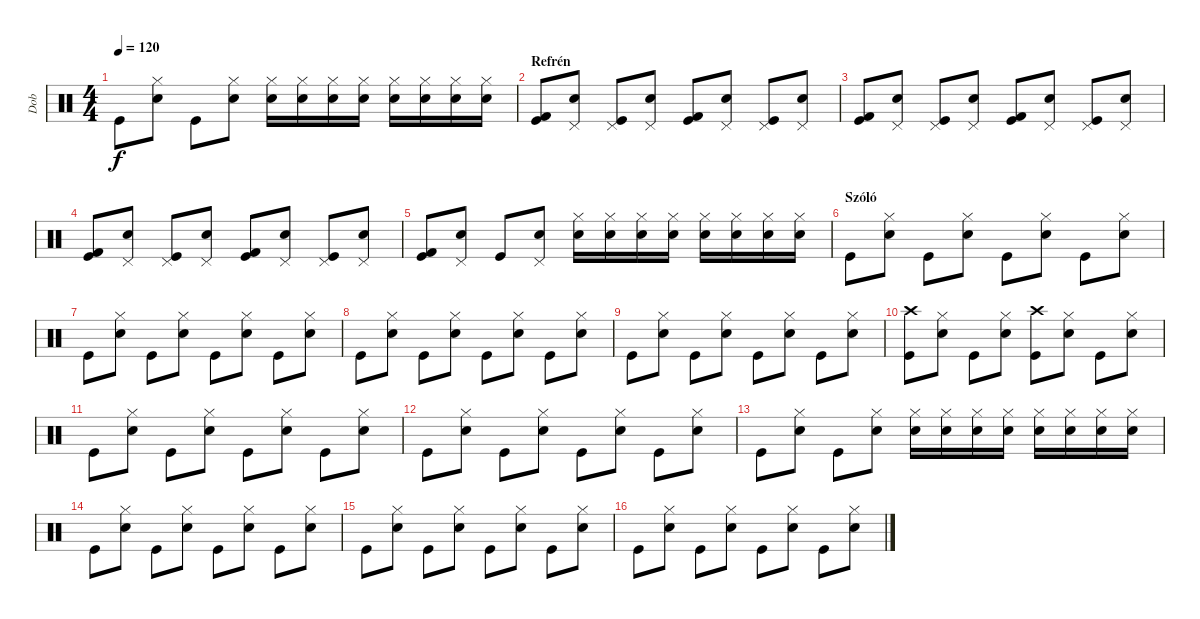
\track ("Dob" "Dob") {instrument percussion}
\staff {score}
\articulation defaults
\ts (4 4)
\tempo 120
\clef neutral
\ks c "Kick (hit)".8{dy f}
("Hi-Hat (closed)" "Electric Snare (hit)").8 "Kick (hit)".8 ("Hi-Hat (closed)" "Electric Snare (hit)").8 ("Hi-Hat (closed)" "Electric Snare (hit)").16 ("Hi-Hat (closed)" "Electric Snare (hit)").16 ("Hi-Hat (closed)" "Electric Snare (hit)").16 ("Hi-Hat (closed)" "Electric Snare (hit)").16 ("Hi-Hat (closed)" "Electric Snare (hit)").16 ("Hi-Hat (closed)" "Electric Snare (hit)").16 ("Hi-Hat (closed)" "Electric Snare (hit)").16 ("Hi-Hat (closed)" "Electric Snare (hit)").16 |
\section ("" "Refrén")
("Kick (hit)" "Kick (hit) 2").8 ("Pedal Hi-Hat (hit)" "Electric Snare (hit)").8 ("Pedal Hi-Hat (hit)" "Kick (hit)").8 ("Pedal Hi-Hat (hit)" "Electric Snare (hit)").8 ("Kick (hit)" "Kick (hit) 2").8 ("Pedal Hi-Hat (hit)" "Electric Snare (hit)").8 ("Pedal Hi-Hat (hit)" "Kick (hit)").8 ("Pedal Hi-Hat (hit)" "Electric Snare (hit)").8 |
("Kick (hit)" "Kick (hit) 2").8 ("Pedal Hi-Hat (hit)" "Electric Snare (hit)").8 ("Pedal Hi-Hat (hit)" "Kick (hit)").8 ("Pedal Hi-Hat (hit)" "Electric Snare (hit)").8 ("Kick (hit)" "Kick (hit) 2").8 ("Pedal Hi-Hat (hit)" "Electric Snare (hit)").8 ("Pedal Hi-Hat (hit)" "Kick (hit)").8 ("Pedal Hi-Hat (hit)" "Electric Snare (hit)").8 |
("Kick (hit)" "Kick (hit) 2").8 ("Pedal Hi-Hat (hit)" "Electric Snare (hit)").8 ("Pedal Hi-Hat (hit)" "Kick (hit)").8 ("Pedal Hi-Hat (hit)" "Electric Snare (hit)").8 ("Kick (hit)" "Kick (hit) 2").8 ("Pedal Hi-Hat (hit)" "Electric Snare (hit)").8 ("Pedal Hi-Hat (hit)" "Kick (hit)").8 ("Pedal Hi-Hat (hit)" "Electric Snare (hit)").8 |
("Kick (hit)" "Kick (hit) 2").8 ("Pedal Hi-Hat (hit)" "Electric Snare (hit)").8 "Kick (hit)".8 ("Pedal Hi-Hat (hit)" "Electric Snare (hit)").8 ("Hi-Hat (closed)" "Electric Snare (hit)").16 ("Hi-Hat (closed)" "Electric Snare (hit)").16 ("Hi-Hat (closed)" "Electric Snare (hit)").16 ("Hi-Hat (closed)" "Electric Snare (hit)").16 ("Hi-Hat (closed)" "Electric Snare (hit)").16 ("Hi-Hat (closed)" "Electric Snare (hit)").16 ("Hi-Hat (closed)" "Electric Snare (hit)").16 ("Hi-Hat (closed)" "Electric Snare (hit)").16 |
\section ("" "Szóló")
"Kick (hit)".8 ("Hi-Hat (closed)" "Electric Snare (hit)").8 "Kick (hit)".8 ("Hi-Hat (closed)" "Electric Snare (hit)").8 "Kick (hit)".8 ("Hi-Hat (closed)" "Electric Snare (hit)").8 "Kick (hit)".8 ("Hi-Hat (closed)" "Electric Snare (hit)").8 |
"Kick (hit)".8 ("Hi-Hat (closed)" "Electric Snare (hit)").8 "Kick (hit)".8 ("Hi-Hat (closed)" "Electric Snare (hit)").8 "Kick (hit)".8 ("Hi-Hat (closed)" "Electric Snare (hit)").8 "Kick (hit)".8 ("Hi-Hat (closed)" "Electric Snare (hit)").8 |
"Kick (hit)".8 ("Hi-Hat (closed)" "Electric Snare (hit)").8 "Kick (hit)".8 ("Hi-Hat (closed)" "Electric Snare (hit)").8 "Kick (hit)".8 ("Hi-Hat (closed)" "Electric Snare (hit)").8 "Kick (hit)".8 ("Hi-Hat (closed)" "Electric Snare (hit)").8 |
"Kick (hit)".8 ("Hi-Hat (closed)" "Electric Snare (hit)").8 "Kick (hit)".8 ("Hi-Hat (closed)" "Electric Snare (hit)").8 "Kick (hit)".8 ("Hi-Hat (closed)" "Electric Snare (hit)").8 "Kick (hit)".8 ("Hi-Hat (closed)" "Electric Snare (hit)").8 |
("Kick (hit)" "Crash high (hit)").8 ("Hi-Hat (closed)" "Electric Snare (hit)").8 "Kick (hit)".8 ("Hi-Hat (closed)" "Electric Snare (hit)").8 ("Kick (hit)" "Crash high (hit)").8 ("Hi-Hat (closed)" "Electric Snare (hit)").8 "Kick (hit)".8 ("Hi-Hat (closed)" "Electric Snare (hit)").8 |
"Kick (hit)".8 ("Hi-Hat (closed)" "Electric Snare (hit)").8 "Kick (hit)".8 ("Hi-Hat (closed)" "Electric Snare (hit)").8 "Kick (hit)".8 ("Hi-Hat (closed)" "Electric Snare (hit)").8 "Kick (hit)".8 ("Hi-Hat (closed)" "Electric Snare (hit)").8 |
"Kick (hit)".8 ("Hi-Hat (closed)" "Electric Snare (hit)").8 "Kick (hit)".8 ("Hi-Hat (closed)" "Electric Snare (hit)").8 "Kick (hit)".8 ("Hi-Hat (closed)" "Electric Snare (hit)").8 "Kick (hit)".8 ("Hi-Hat (closed)" "Electric Snare (hit)").8 |
"Kick (hit)".8 ("Hi-Hat (closed)" "Electric Snare (hit)").8 "Kick (hit)".8 ("Hi-Hat (closed)" "Electric Snare (hit)").8 ("Hi-Hat (closed)" "Electric Snare (hit)").16 ("Hi-Hat (closed)" "Electric Snare (hit)").16 ("Hi-Hat (closed)" "Electric Snare (hit)").16 ("Hi-Hat (closed)" "Electric Snare (hit)").16 ("Hi-Hat (closed)" "Electric Snare (hit)").16 ("Hi-Hat (closed)" "Electric Snare (hit)").16 ("Hi-Hat (closed)" "Electric Snare (hit)").16 ("Hi-Hat (closed)" "Electric Snare (hit)").16 |
"Kick (hit)".8 ("Hi-Hat (closed)" "Electric Snare (hit)").8 "Kick (hit)".8 ("Hi-Hat (closed)" "Electric Snare (hit)").8 "Kick (hit)".8 ("Hi-Hat (closed)" "Electric Snare (hit)").8 "Kick (hit)".8 ("Hi-Hat (closed)" "Electric Snare (hit)").8 |
"Kick (hit)".8 ("Hi-Hat (closed)" "Electric Snare (hit)").8 "Kick (hit)".8 ("Hi-Hat (closed)" "Electric Snare (hit)").8 "Kick (hit)".8 ("Hi-Hat (closed)" "Electric Snare (hit)").8 "Kick (hit)".8 ("Hi-Hat (closed)" "Electric Snare (hit)").8 |
"Kick (hit)".8 ("Hi-Hat (closed)" "Electric Snare (hit)").8 "Kick (hit)".8 ("Hi-Hat (closed)" "Electric Snare (hit)").8 "Kick (hit)".8 ("Hi-Hat (closed)" "Electric Snare (hit)").8 "Kick (hit)".8 ("Hi-Hat (closed)" "Electric Snare (hit)").8
